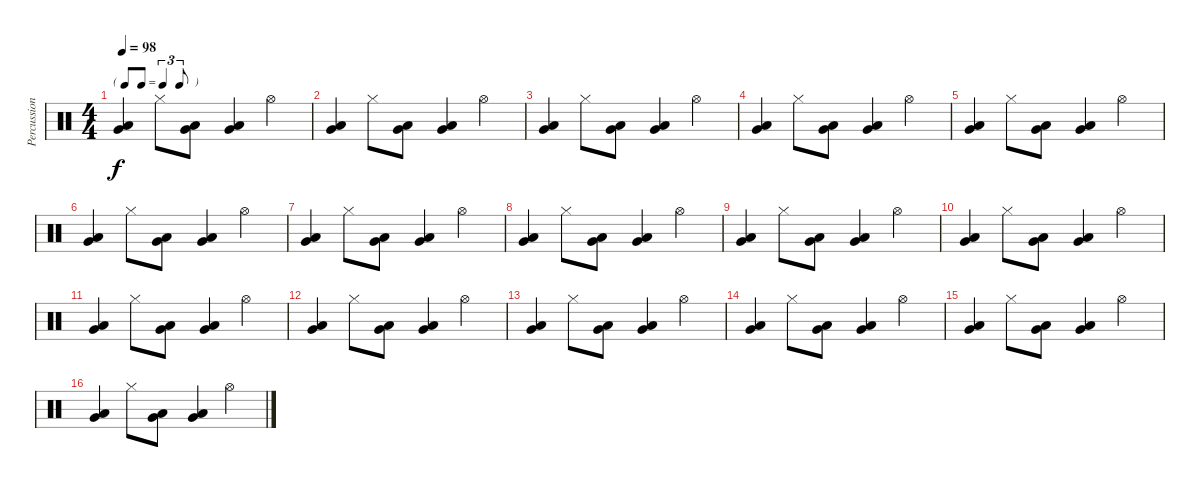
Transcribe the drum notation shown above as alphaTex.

\track ("Percussion" "Percussion") {instrument percussion}
\staff {score}
\articulation defaults
\ts (4 4)
\tf triplet8th
\tempo 98
\clef neutral
\ks c
("Very Low Tom (hit)" "Low Floor Tom (hit)").4{dy f} "Hi-Hat (closed)".8 ("Very Low Tom (hit)" "Low Floor Tom (hit)").8 ("Very Low Tom (hit)" "Low Floor Tom (hit)").4 "Hi-Hat (open)".4 |
("Very Low Tom (hit)" "Low Floor Tom (hit)").4 "Hi-Hat (closed)".8 ("Very Low Tom (hit)" "Low Floor Tom (hit)").8 ("Very Low Tom (hit)" "Low Floor Tom (hit)").4 "Hi-Hat (open)".4 |
("Very Low Tom (hit)" "Low Floor Tom (hit)").4 "Hi-Hat (closed)".8 ("Very Low Tom (hit)" "Low Floor Tom (hit)").8 ("Very Low Tom (hit)" "Low Floor Tom (hit)").4 "Hi-Hat (open)".4 |
("Very Low Tom (hit)" "Low Floor Tom (hit)").4 "Hi-Hat (closed)".8 ("Very Low Tom (hit)" "Low Floor Tom (hit)").8 ("Very Low Tom (hit)" "Low Floor Tom (hit)").4 "Hi-Hat (open)".4 |
("Very Low Tom (hit)" "Low Floor Tom (hit)").4 "Hi-Hat (closed)".8 ("Very Low Tom (hit)" "Low Floor Tom (hit)").8 ("Very Low Tom (hit)" "Low Floor Tom (hit)").4 "Hi-Hat (open)".4 |
("Very Low Tom (hit)" "Low Floor Tom (hit)").4 "Hi-Hat (closed)".8 ("Very Low Tom (hit)" "Low Floor Tom (hit)").8 ("Very Low Tom (hit)" "Low Floor Tom (hit)").4 "Hi-Hat (open)".4 |
("Very Low Tom (hit)" "Low Floor Tom (hit)").4 "Hi-Hat (closed)".8 ("Very Low Tom (hit)" "Low Floor Tom (hit)").8 ("Very Low Tom (hit)" "Low Floor Tom (hit)").4 "Hi-Hat (open)".4 |
("Very Low Tom (hit)" "Low Floor Tom (hit)").4 "Hi-Hat (closed)".8 ("Very Low Tom (hit)" "Low Floor Tom (hit)").8 ("Very Low Tom (hit)" "Low Floor Tom (hit)").4 "Hi-Hat (open)".4 |
("Very Low Tom (hit)" "Low Floor Tom (hit)").4 "Hi-Hat (closed)".8 ("Very Low Tom (hit)" "Low Floor Tom (hit)").8 ("Very Low Tom (hit)" "Low Floor Tom (hit)").4 "Hi-Hat (open)".4 |
("Very Low Tom (hit)" "Low Floor Tom (hit)").4 "Hi-Hat (closed)".8 ("Very Low Tom (hit)" "Low Floor Tom (hit)").8 ("Very Low Tom (hit)" "Low Floor Tom (hit)").4 "Hi-Hat (open)".4 |
("Very Low Tom (hit)" "Low Floor Tom (hit)").4 "Hi-Hat (closed)".8 ("Very Low Tom (hit)" "Low Floor Tom (hit)").8 ("Very Low Tom (hit)" "Low Floor Tom (hit)").4 "Hi-Hat (open)".4 |
("Very Low Tom (hit)" "Low Floor Tom (hit)").4 "Hi-Hat (closed)".8 ("Very Low Tom (hit)" "Low Floor Tom (hit)").8 ("Very Low Tom (hit)" "Low Floor Tom (hit)").4 "Hi-Hat (open)".4 |
("Very Low Tom (hit)" "Low Floor Tom (hit)").4 "Hi-Hat (closed)".8 ("Very Low Tom (hit)" "Low Floor Tom (hit)").8 ("Very Low Tom (hit)" "Low Floor Tom (hit)").4 "Hi-Hat (open)".4 |
("Very Low Tom (hit)" "Low Floor Tom (hit)").4 "Hi-Hat (closed)".8 ("Very Low Tom (hit)" "Low Floor Tom (hit)").8 ("Very Low Tom (hit)" "Low Floor Tom (hit)").4 "Hi-Hat (open)".4 |
("Very Low Tom (hit)" "Low Floor Tom (hit)").4 "Hi-Hat (closed)".8 ("Very Low Tom (hit)" "Low Floor Tom (hit)").8 ("Very Low Tom (hit)" "Low Floor Tom (hit)").4 "Hi-Hat (open)".4 |
("Very Low Tom (hit)" "Low Floor Tom (hit)").4 "Hi-Hat (closed)".8 ("Very Low Tom (hit)" "Low Floor Tom (hit)").8 ("Very Low Tom (hit)" "Low Floor Tom (hit)").4 "Hi-Hat (open)".4
